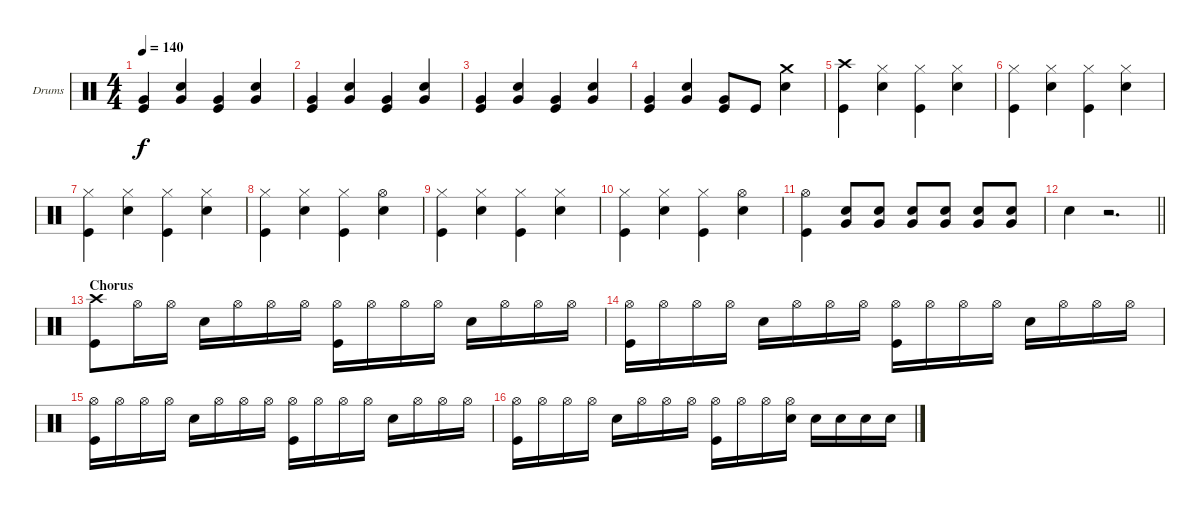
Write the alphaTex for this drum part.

\bracketExtendMode groupsimilarinstruments
\firstSystemTrackNameOrientation horizontal
\otherSystemsTrackNameOrientation horizontal
\track ("Drumkit" "Drums") {instrument percussion}
\staff {score}
\articulation defaults
\ts (4 4)
\tempo 140
\clef neutral
\ks c
("Very Low Tom (hit)" "Kick (hit)").4{dy f} ("Very Low Tom (hit)" "Snare (hit) 2").4 ("Very Low Tom (hit)" "Kick (hit)").4 ("Very Low Tom (hit)" "Snare (hit) 2").4 |
("Very Low Tom (hit)" "Kick (hit)").4 ("Very Low Tom (hit)" "Snare (hit) 2").4 ("Very Low Tom (hit)" "Kick (hit)").4 ("Very Low Tom (hit)" "Snare (hit) 2").4 |
("Very Low Tom (hit)" "Kick (hit)").4 ("Very Low Tom (hit)" "Snare (hit) 2").4 ("Very Low Tom (hit)" "Kick (hit)").4 ("Very Low Tom (hit)" "Snare (hit) 2").4 |
("Very Low Tom (hit)" "Kick (hit)").4 ("Very Low Tom (hit)" "Snare (hit) 2").4 ("Very Low Tom (hit)" "Kick (hit)").8 "Kick (hit)".8 ("Crash medium (hit)" "Snare (hit) 2").4 |
("Crash high (hit)" "Kick (hit)").4 ("Hi-Hat (closed)" "Snare (hit) 2").4 ("Hi-Hat (closed)" "Kick (hit)").4 ("Hi-Hat (closed)" "Snare (hit) 2").4 |
("Hi-Hat (closed)" "Kick (hit)").4 ("Hi-Hat (closed)" "Snare (hit) 2").4 ("Hi-Hat (closed)" "Kick (hit)").4 ("Hi-Hat (closed)" "Snare (hit) 2").4 |
("Hi-Hat (closed)" "Kick (hit)").4 ("Hi-Hat (closed)" "Snare (hit) 2").4 ("Hi-Hat (closed)" "Kick (hit)").4 ("Hi-Hat (closed)" "Snare (hit) 2").4 |
("Hi-Hat (closed)" "Kick (hit)").4 ("Hi-Hat (closed)" "Snare (hit) 2").4 ("Hi-Hat (closed)" "Kick (hit)").4 ("Hi-Hat (open)" "Snare (hit) 2").4 |
("Hi-Hat (closed)" "Kick (hit)").4 ("Hi-Hat (closed)" "Snare (hit) 2").4 ("Hi-Hat (closed)" "Kick (hit)").4 ("Hi-Hat (closed)" "Snare (hit) 2").4 |
("Hi-Hat (closed)" "Kick (hit)").4 ("Hi-Hat (closed)" "Snare (hit) 2").4 ("Hi-Hat (closed)" "Kick (hit)").4 ("Hi-Hat (open)" "Snare (hit) 2").4 |
("Hi-Hat (open)" "Kick (hit)").4 ("Very Low Tom (hit)" "Snare (hit) 2").8 ("Very Low Tom (hit)" "Snare (hit) 2").8 ("Very Low Tom (hit)" "Snare (hit) 2").8 ("Very Low Tom (hit)" "Snare (hit) 2").8 ("Very Low Tom (hit)" "Snare (hit) 2").8 ("Very Low Tom (hit)" "Snare (hit) 2").8 |
\barLineRight lightlight "Snare (hit) 2".4
r.2{d} |
\section ("" "Chorus")
("Crash high (hit)" "Kick (hit)").8 "Hi-Hat (open)".16 "Hi-Hat (open)".16 "Snare (hit) 2".16 "Hi-Hat (open)".16 "Hi-Hat (open)".16 "Hi-Hat (open)".16 ("Hi-Hat (open)" "Kick (hit)").16 "Hi-Hat (open)".16 "Hi-Hat (open)".16 "Hi-Hat (open)".16 "Snare (hit) 2".16 "Hi-Hat (open)".16 "Hi-Hat (open)".16 "Hi-Hat (open)".16 |
("Hi-Hat (open)" "Kick (hit)").16 "Hi-Hat (open)".16 "Hi-Hat (open)".16 "Hi-Hat (open)".16 "Snare (hit) 2".16 "Hi-Hat (open)".16 "Hi-Hat (open)".16 "Hi-Hat (open)".16 ("Hi-Hat (open)" "Kick (hit)").16 "Hi-Hat (open)".16 "Hi-Hat (open)".16 "Hi-Hat (open)".16 "Snare (hit) 2".16 "Hi-Hat (open)".16 "Hi-Hat (open)".16 "Hi-Hat (open)".16 |
("Hi-Hat (open)" "Kick (hit)").16 "Hi-Hat (open)".16 "Hi-Hat (open)".16 "Hi-Hat (open)".16 "Snare (hit) 2".16 "Hi-Hat (open)".16 "Hi-Hat (open)".16 "Hi-Hat (open)".16 ("Hi-Hat (open)" "Kick (hit)").16 "Hi-Hat (open)".16 "Hi-Hat (open)".16 "Hi-Hat (open)".16 "Snare (hit) 2".16 "Hi-Hat (open)".16 "Hi-Hat (open)".16 "Hi-Hat (open)".16 |
("Hi-Hat (open)" "Kick (hit)").16 "Hi-Hat (open)".16 "Hi-Hat (open)".16 "Hi-Hat (open)".16 "Snare (hit) 2".16 "Hi-Hat (open)".16 "Hi-Hat (open)".16 "Hi-Hat (open)".16 ("Hi-Hat (open)" "Kick (hit)").16 "Hi-Hat (open)".16 "Hi-Hat (open)".16 ("Hi-Hat (open)" "Snare (hit) 2").16 "Snare (hit) 2".16 "Snare (hit) 2".16 "Snare (hit) 2".16 "Snare (hit) 2".16
